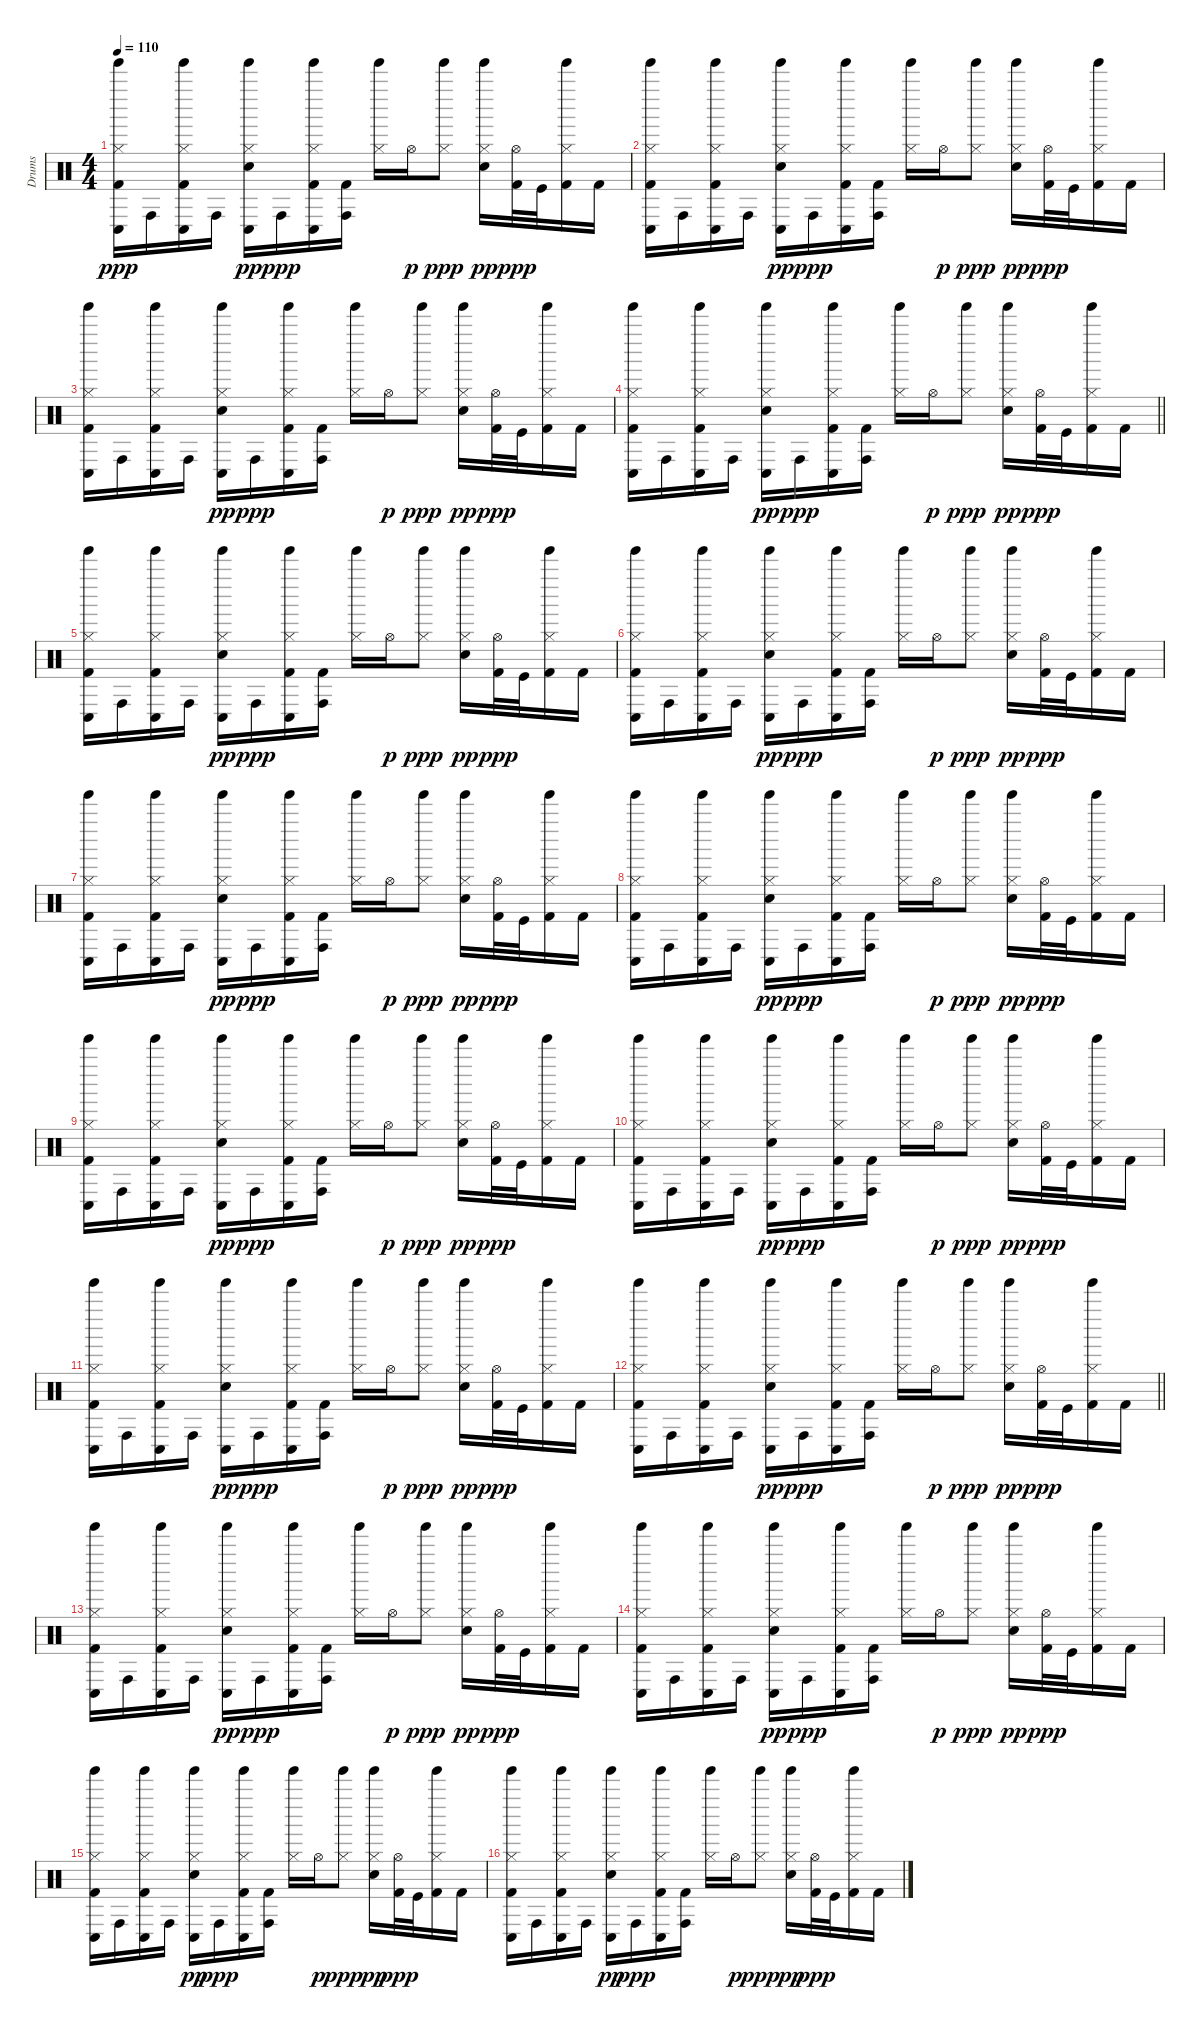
\track ("Drums" "Drums") {instrument percussion}
\staff {score}
\articulation defaults
\ts (4 4)
\tempo 110
\clef neutral
\ks c
("Tinkle Bell (hit)" "Conga low (hit)" "Hi-Hat (closed)" "Kick (hit) 2").16{dy ppp} "Conga high (hit)".16 ("Tinkle Bell (hit)" "Conga low (hit)" "Hi-Hat (closed)" "Kick (hit) 2").16 "Conga high (hit)".16 ("Tinkle Bell (hit)" "Conga low (hit)" "Hi-Hat (closed)" "Snare (hit) 2").16{dy pp} "Conga high (hit)".16{dy ppp} ("Tinkle Bell (hit)" "Conga low (hit)" "Hi-Hat (closed)" "Kick (hit) 2").16 ("Conga high (hit)" "Kick (hit) 2").16 ("Tinkle Bell (hit)" "Hi-Hat (closed)").16 "Hi-Hat (open)".16{dy p} ("Tinkle Bell (hit)" "Hi-Hat (closed)").8{dy ppp} ("Tinkle Bell (hit)" "Hi-Hat (closed)" "Snare (hit) 2").16{dy pp} ("Hi-Hat (open)" "Kick (hit) 2").32{dy ppp} "Kick (hit)".32 ("Tinkle Bell (hit)" "Hi-Hat (closed)" "Kick (hit) 2").16 "Kick (hit) 2".16 |
("Tinkle Bell (hit)" "Conga low (hit)" "Hi-Hat (closed)" "Kick (hit) 2").16 "Conga high (hit)".16 ("Tinkle Bell (hit)" "Conga low (hit)" "Hi-Hat (closed)" "Kick (hit) 2").16 "Conga high (hit)".16 ("Tinkle Bell (hit)" "Conga low (hit)" "Hi-Hat (closed)" "Snare (hit) 2").16{dy pp} "Conga high (hit)".16{dy ppp} ("Tinkle Bell (hit)" "Conga low (hit)" "Hi-Hat (closed)" "Kick (hit) 2").16 ("Conga high (hit)" "Kick (hit) 2").16 ("Tinkle Bell (hit)" "Hi-Hat (closed)").16 "Hi-Hat (open)".16{dy p} ("Tinkle Bell (hit)" "Hi-Hat (closed)").8{dy ppp} ("Tinkle Bell (hit)" "Hi-Hat (closed)" "Snare (hit) 2").16{dy pp} ("Hi-Hat (open)" "Kick (hit) 2").32{dy ppp} "Kick (hit)".32 ("Tinkle Bell (hit)" "Hi-Hat (closed)" "Kick (hit) 2").16 "Kick (hit) 2".16 |
("Tinkle Bell (hit)" "Conga low (hit)" "Hi-Hat (closed)" "Kick (hit) 2").16 "Conga high (hit)".16 ("Tinkle Bell (hit)" "Conga low (hit)" "Hi-Hat (closed)" "Kick (hit) 2").16 "Conga high (hit)".16 ("Tinkle Bell (hit)" "Conga low (hit)" "Hi-Hat (closed)" "Snare (hit) 2").16{dy pp} "Conga high (hit)".16{dy ppp} ("Tinkle Bell (hit)" "Conga low (hit)" "Hi-Hat (closed)" "Kick (hit) 2").16 ("Conga high (hit)" "Kick (hit) 2").16 ("Tinkle Bell (hit)" "Hi-Hat (closed)").16 "Hi-Hat (open)".16{dy p} ("Tinkle Bell (hit)" "Hi-Hat (closed)").8{dy ppp} ("Tinkle Bell (hit)" "Hi-Hat (closed)" "Snare (hit) 2").16{dy pp} ("Hi-Hat (open)" "Kick (hit) 2").32{dy ppp} "Kick (hit)".32 ("Tinkle Bell (hit)" "Hi-Hat (closed)" "Kick (hit) 2").16 "Kick (hit) 2".16 |
\barLineRight lightlight
("Tinkle Bell (hit)" "Conga low (hit)" "Hi-Hat (closed)" "Kick (hit) 2").16 "Conga high (hit)".16 ("Tinkle Bell (hit)" "Conga low (hit)" "Hi-Hat (closed)" "Kick (hit) 2").16 "Conga high (hit)".16 ("Tinkle Bell (hit)" "Conga low (hit)" "Hi-Hat (closed)" "Snare (hit) 2").16{dy pp} "Conga high (hit)".16{dy ppp} ("Tinkle Bell (hit)" "Conga low (hit)" "Hi-Hat (closed)" "Kick (hit) 2").16 ("Conga high (hit)" "Kick (hit) 2").16 ("Tinkle Bell (hit)" "Hi-Hat (closed)").16 "Hi-Hat (open)".16{dy p} ("Tinkle Bell (hit)" "Hi-Hat (closed)").8{dy ppp} ("Tinkle Bell (hit)" "Hi-Hat (closed)" "Snare (hit) 2").16{dy pp} ("Hi-Hat (open)" "Kick (hit) 2").32{dy ppp} "Kick (hit)".32 ("Tinkle Bell (hit)" "Hi-Hat (closed)" "Kick (hit) 2").16 "Kick (hit) 2".16 |
("Tinkle Bell (hit)" "Conga low (hit)" "Hi-Hat (closed)" "Kick (hit) 2").16 "Conga high (hit)".16 ("Tinkle Bell (hit)" "Conga low (hit)" "Hi-Hat (closed)" "Kick (hit) 2").16 "Conga high (hit)".16 ("Tinkle Bell (hit)" "Conga low (hit)" "Hi-Hat (closed)" "Snare (hit) 2").16{dy pp} "Conga high (hit)".16{dy ppp} ("Tinkle Bell (hit)" "Conga low (hit)" "Hi-Hat (closed)" "Kick (hit) 2").16 ("Conga high (hit)" "Kick (hit) 2").16 ("Tinkle Bell (hit)" "Hi-Hat (closed)").16 "Hi-Hat (open)".16{dy p} ("Tinkle Bell (hit)" "Hi-Hat (closed)").8{dy ppp} ("Tinkle Bell (hit)" "Hi-Hat (closed)" "Snare (hit) 2").16{dy pp} ("Hi-Hat (open)" "Kick (hit) 2").32{dy ppp} "Kick (hit)".32 ("Tinkle Bell (hit)" "Hi-Hat (closed)" "Kick (hit) 2").16 "Kick (hit) 2".16 |
("Tinkle Bell (hit)" "Conga low (hit)" "Hi-Hat (closed)" "Kick (hit) 2").16 "Conga high (hit)".16 ("Tinkle Bell (hit)" "Conga low (hit)" "Hi-Hat (closed)" "Kick (hit) 2").16 "Conga high (hit)".16 ("Tinkle Bell (hit)" "Conga low (hit)" "Hi-Hat (closed)" "Snare (hit) 2").16{dy pp} "Conga high (hit)".16{dy ppp} ("Tinkle Bell (hit)" "Conga low (hit)" "Hi-Hat (closed)" "Kick (hit) 2").16 ("Conga high (hit)" "Kick (hit) 2").16 ("Tinkle Bell (hit)" "Hi-Hat (closed)").16 "Hi-Hat (open)".16{dy p} ("Tinkle Bell (hit)" "Hi-Hat (closed)").8{dy ppp} ("Tinkle Bell (hit)" "Hi-Hat (closed)" "Snare (hit) 2").16{dy pp} ("Hi-Hat (open)" "Kick (hit) 2").32{dy ppp} "Kick (hit)".32 ("Tinkle Bell (hit)" "Hi-Hat (closed)" "Kick (hit) 2").16 "Kick (hit) 2".16 |
("Tinkle Bell (hit)" "Conga low (hit)" "Hi-Hat (closed)" "Kick (hit) 2").16 "Conga high (hit)".16 ("Tinkle Bell (hit)" "Conga low (hit)" "Hi-Hat (closed)" "Kick (hit) 2").16 "Conga high (hit)".16 ("Tinkle Bell (hit)" "Conga low (hit)" "Hi-Hat (closed)" "Snare (hit) 2").16{dy pp} "Conga high (hit)".16{dy ppp} ("Tinkle Bell (hit)" "Conga low (hit)" "Hi-Hat (closed)" "Kick (hit) 2").16 ("Conga high (hit)" "Kick (hit) 2").16 ("Tinkle Bell (hit)" "Hi-Hat (closed)").16 "Hi-Hat (open)".16{dy p} ("Tinkle Bell (hit)" "Hi-Hat (closed)").8{dy ppp} ("Tinkle Bell (hit)" "Hi-Hat (closed)" "Snare (hit) 2").16{dy pp} ("Hi-Hat (open)" "Kick (hit) 2").32{dy ppp} "Kick (hit)".32 ("Tinkle Bell (hit)" "Hi-Hat (closed)" "Kick (hit) 2").16 "Kick (hit) 2".16 |
("Tinkle Bell (hit)" "Conga low (hit)" "Hi-Hat (closed)" "Kick (hit) 2").16 "Conga high (hit)".16 ("Tinkle Bell (hit)" "Conga low (hit)" "Hi-Hat (closed)" "Kick (hit) 2").16 "Conga high (hit)".16 ("Tinkle Bell (hit)" "Conga low (hit)" "Hi-Hat (closed)" "Snare (hit) 2").16{dy pp} "Conga high (hit)".16{dy ppp} ("Tinkle Bell (hit)" "Conga low (hit)" "Hi-Hat (closed)" "Kick (hit) 2").16 ("Conga high (hit)" "Kick (hit) 2").16 ("Tinkle Bell (hit)" "Hi-Hat (closed)").16 "Hi-Hat (open)".16{dy p} ("Tinkle Bell (hit)" "Hi-Hat (closed)").8{dy ppp} ("Tinkle Bell (hit)" "Hi-Hat (closed)" "Snare (hit) 2").16{dy pp} ("Hi-Hat (open)" "Kick (hit) 2").32{dy ppp} "Kick (hit)".32 ("Tinkle Bell (hit)" "Hi-Hat (closed)" "Kick (hit) 2").16 "Kick (hit) 2".16 |
("Tinkle Bell (hit)" "Conga low (hit)" "Hi-Hat (closed)" "Kick (hit) 2").16 "Conga high (hit)".16 ("Tinkle Bell (hit)" "Conga low (hit)" "Hi-Hat (closed)" "Kick (hit) 2").16 "Conga high (hit)".16 ("Tinkle Bell (hit)" "Conga low (hit)" "Hi-Hat (closed)" "Snare (hit) 2").16{dy pp} "Conga high (hit)".16{dy ppp} ("Tinkle Bell (hit)" "Conga low (hit)" "Hi-Hat (closed)" "Kick (hit) 2").16 ("Conga high (hit)" "Kick (hit) 2").16 ("Tinkle Bell (hit)" "Hi-Hat (closed)").16 "Hi-Hat (open)".16{dy p} ("Tinkle Bell (hit)" "Hi-Hat (closed)").8{dy ppp} ("Tinkle Bell (hit)" "Hi-Hat (closed)" "Snare (hit) 2").16{dy pp} ("Hi-Hat (open)" "Kick (hit) 2").32{dy ppp} "Kick (hit)".32 ("Tinkle Bell (hit)" "Hi-Hat (closed)" "Kick (hit) 2").16 "Kick (hit) 2".16 |
("Tinkle Bell (hit)" "Conga low (hit)" "Hi-Hat (closed)" "Kick (hit) 2").16 "Conga high (hit)".16 ("Tinkle Bell (hit)" "Conga low (hit)" "Hi-Hat (closed)" "Kick (hit) 2").16 "Conga high (hit)".16 ("Tinkle Bell (hit)" "Conga low (hit)" "Hi-Hat (closed)" "Snare (hit) 2").16{dy pp} "Conga high (hit)".16{dy ppp} ("Tinkle Bell (hit)" "Conga low (hit)" "Hi-Hat (closed)" "Kick (hit) 2").16 ("Conga high (hit)" "Kick (hit) 2").16 ("Tinkle Bell (hit)" "Hi-Hat (closed)").16 "Hi-Hat (open)".16{dy p} ("Tinkle Bell (hit)" "Hi-Hat (closed)").8{dy ppp} ("Tinkle Bell (hit)" "Hi-Hat (closed)" "Snare (hit) 2").16{dy pp} ("Hi-Hat (open)" "Kick (hit) 2").32{dy ppp} "Kick (hit)".32 ("Tinkle Bell (hit)" "Hi-Hat (closed)" "Kick (hit) 2").16 "Kick (hit) 2".16 |
("Tinkle Bell (hit)" "Conga low (hit)" "Hi-Hat (closed)" "Kick (hit) 2").16 "Conga high (hit)".16 ("Tinkle Bell (hit)" "Conga low (hit)" "Hi-Hat (closed)" "Kick (hit) 2").16 "Conga high (hit)".16 ("Tinkle Bell (hit)" "Conga low (hit)" "Hi-Hat (closed)" "Snare (hit) 2").16{dy pp} "Conga high (hit)".16{dy ppp} ("Tinkle Bell (hit)" "Conga low (hit)" "Hi-Hat (closed)" "Kick (hit) 2").16 ("Conga high (hit)" "Kick (hit) 2").16 ("Tinkle Bell (hit)" "Hi-Hat (closed)").16 "Hi-Hat (open)".16{dy p} ("Tinkle Bell (hit)" "Hi-Hat (closed)").8{dy ppp} ("Tinkle Bell (hit)" "Hi-Hat (closed)" "Snare (hit) 2").16{dy pp} ("Hi-Hat (open)" "Kick (hit) 2").32{dy ppp} "Kick (hit)".32 ("Tinkle Bell (hit)" "Hi-Hat (closed)" "Kick (hit) 2").16 "Kick (hit) 2".16 |
\barLineRight lightlight
("Tinkle Bell (hit)" "Conga low (hit)" "Hi-Hat (closed)" "Kick (hit) 2").16 "Conga high (hit)".16 ("Tinkle Bell (hit)" "Conga low (hit)" "Hi-Hat (closed)" "Kick (hit) 2").16 "Conga high (hit)".16 ("Tinkle Bell (hit)" "Conga low (hit)" "Hi-Hat (closed)" "Snare (hit) 2").16{dy pp} "Conga high (hit)".16{dy ppp} ("Tinkle Bell (hit)" "Conga low (hit)" "Hi-Hat (closed)" "Kick (hit) 2").16 ("Conga high (hit)" "Kick (hit) 2").16 ("Tinkle Bell (hit)" "Hi-Hat (closed)").16 "Hi-Hat (open)".16{dy p} ("Tinkle Bell (hit)" "Hi-Hat (closed)").8{dy ppp} ("Tinkle Bell (hit)" "Hi-Hat (closed)" "Snare (hit) 2").16{dy pp} ("Hi-Hat (open)" "Kick (hit) 2").32{dy ppp} "Kick (hit)".32 ("Tinkle Bell (hit)" "Hi-Hat (closed)" "Kick (hit) 2").16 "Kick (hit) 2".16 |
("Tinkle Bell (hit)" "Conga low (hit)" "Hi-Hat (closed)" "Kick (hit) 2").16 "Conga high (hit)".16 ("Tinkle Bell (hit)" "Conga low (hit)" "Hi-Hat (closed)" "Kick (hit) 2").16 "Conga high (hit)".16 ("Tinkle Bell (hit)" "Conga low (hit)" "Hi-Hat (closed)" "Snare (hit) 2").16{dy pp} "Conga high (hit)".16{dy ppp} ("Tinkle Bell (hit)" "Conga low (hit)" "Hi-Hat (closed)" "Kick (hit) 2").16 ("Conga high (hit)" "Kick (hit) 2").16 ("Tinkle Bell (hit)" "Hi-Hat (closed)").16 "Hi-Hat (open)".16{dy p} ("Tinkle Bell (hit)" "Hi-Hat (closed)").8{dy ppp} ("Tinkle Bell (hit)" "Hi-Hat (closed)" "Snare (hit) 2").16{dy pp} ("Hi-Hat (open)" "Kick (hit) 2").32{dy ppp} "Kick (hit)".32 ("Tinkle Bell (hit)" "Hi-Hat (closed)" "Kick (hit) 2").16 "Kick (hit) 2".16 |
("Tinkle Bell (hit)" "Conga low (hit)" "Hi-Hat (closed)" "Kick (hit) 2").16 "Conga high (hit)".16 ("Tinkle Bell (hit)" "Conga low (hit)" "Hi-Hat (closed)" "Kick (hit) 2").16 "Conga high (hit)".16 ("Tinkle Bell (hit)" "Conga low (hit)" "Hi-Hat (closed)" "Snare (hit) 2").16{dy pp} "Conga high (hit)".16{dy ppp} ("Tinkle Bell (hit)" "Conga low (hit)" "Hi-Hat (closed)" "Kick (hit) 2").16 ("Conga high (hit)" "Kick (hit) 2").16 ("Tinkle Bell (hit)" "Hi-Hat (closed)").16 "Hi-Hat (open)".16{dy p} ("Tinkle Bell (hit)" "Hi-Hat (closed)").8{dy ppp} ("Tinkle Bell (hit)" "Hi-Hat (closed)" "Snare (hit) 2").16{dy pp} ("Hi-Hat (open)" "Kick (hit) 2").32{dy ppp} "Kick (hit)".32 ("Tinkle Bell (hit)" "Hi-Hat (closed)" "Kick (hit) 2").16 "Kick (hit) 2".16 |
("Tinkle Bell (hit)" "Conga low (hit)" "Hi-Hat (closed)" "Kick (hit) 2").16 "Conga high (hit)".16 ("Tinkle Bell (hit)" "Conga low (hit)" "Hi-Hat (closed)" "Kick (hit) 2").16 "Conga high (hit)".16 ("Tinkle Bell (hit)" "Conga low (hit)" "Hi-Hat (closed)" "Snare (hit) 2").16{dy pp} "Conga high (hit)".16{dy ppp} ("Tinkle Bell (hit)" "Conga low (hit)" "Hi-Hat (closed)" "Kick (hit) 2").16 ("Conga high (hit)" "Kick (hit) 2").16 ("Tinkle Bell (hit)" "Hi-Hat (closed)").16 "Hi-Hat (open)".16{dy p} ("Tinkle Bell (hit)" "Hi-Hat (closed)").8{dy ppp} ("Tinkle Bell (hit)" "Hi-Hat (closed)" "Snare (hit) 2").16{dy pp} ("Hi-Hat (open)" "Kick (hit) 2").32{dy ppp} "Kick (hit)".32 ("Tinkle Bell (hit)" "Hi-Hat (closed)" "Kick (hit) 2").16 "Kick (hit) 2".16 |
("Tinkle Bell (hit)" "Conga low (hit)" "Hi-Hat (closed)" "Kick (hit) 2").16 "Conga high (hit)".16 ("Tinkle Bell (hit)" "Conga low (hit)" "Hi-Hat (closed)" "Kick (hit) 2").16 "Conga high (hit)".16 ("Tinkle Bell (hit)" "Conga low (hit)" "Hi-Hat (closed)" "Snare (hit) 2").16{dy pp} "Conga high (hit)".16{dy ppp} ("Tinkle Bell (hit)" "Conga low (hit)" "Hi-Hat (closed)" "Kick (hit) 2").16 ("Conga high (hit)" "Kick (hit) 2").16 ("Tinkle Bell (hit)" "Hi-Hat (closed)").16 "Hi-Hat (open)".16{dy p} ("Tinkle Bell (hit)" "Hi-Hat (closed)").8{dy ppp} ("Tinkle Bell (hit)" "Hi-Hat (closed)" "Snare (hit) 2").16{dy pp} ("Hi-Hat (open)" "Kick (hit) 2").32{dy ppp} "Kick (hit)".32 ("Tinkle Bell (hit)" "Hi-Hat (closed)" "Kick (hit) 2").16 "Kick (hit) 2".16
